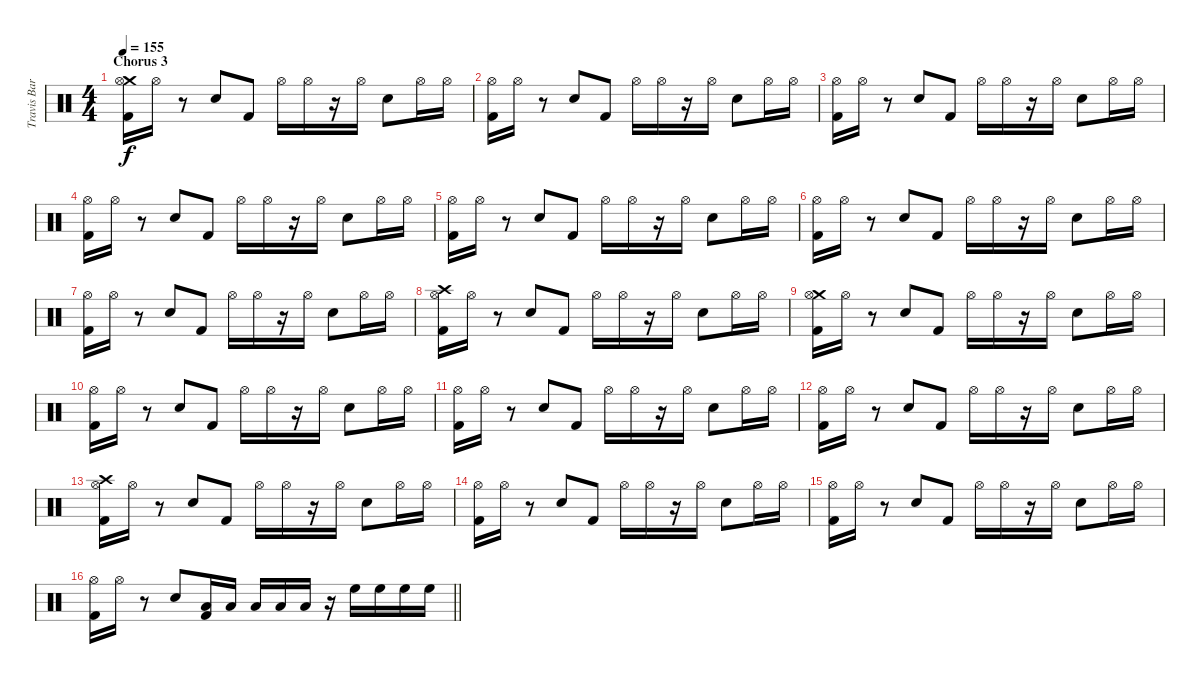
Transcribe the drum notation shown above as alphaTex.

\track ("Travis Barker Drums" "Travis Bar") {mute instrument percussion}
\staff {score}
\articulation defaults
\ts (4 4)
\section ("" "Chorus 3")
\tempo 155
\clef neutral
\ks c
("Crash medium (hit)" "Hi-Hat (open)" "Kick (hit) 2").16{dy f} "Hi-Hat (open)".16 r.8 "Electric Snare (hit)".8 "Kick (hit) 2".8 "Hi-Hat (open)".16 "Hi-Hat (open)".16 r.16 "Hi-Hat (open)".16 "Electric Snare (hit)".8 "Hi-Hat (open)".16 "Hi-Hat (open)".16 |
("Hi-Hat (open)" "Kick (hit) 2").16 "Hi-Hat (open)".16 r.8 "Electric Snare (hit)".8 "Kick (hit) 2".8 "Hi-Hat (open)".16 "Hi-Hat (open)".16 r.16 "Hi-Hat (open)".16 "Electric Snare (hit)".8 "Hi-Hat (open)".16 "Hi-Hat (open)".16 |
("Hi-Hat (open)" "Kick (hit) 2").16 "Hi-Hat (open)".16 r.8 "Electric Snare (hit)".8 "Kick (hit) 2".8 "Hi-Hat (open)".16 "Hi-Hat (open)".16 r.16 "Hi-Hat (open)".16 "Electric Snare (hit)".8 "Hi-Hat (open)".16 "Hi-Hat (open)".16 |
("Hi-Hat (open)" "Kick (hit) 2").16 "Hi-Hat (open)".16 r.8 "Electric Snare (hit)".8 "Kick (hit) 2".8 "Hi-Hat (open)".16 "Hi-Hat (open)".16 r.16 "Hi-Hat (open)".16 "Electric Snare (hit)".8 "Hi-Hat (open)".16 "Hi-Hat (open)".16 |
("Hi-Hat (open)" "Kick (hit) 2").16 "Hi-Hat (open)".16 r.8 "Electric Snare (hit)".8 "Kick (hit) 2".8 "Hi-Hat (open)".16 "Hi-Hat (open)".16 r.16 "Hi-Hat (open)".16 "Electric Snare (hit)".8 "Hi-Hat (open)".16 "Hi-Hat (open)".16 |
("Hi-Hat (open)" "Kick (hit) 2").16 "Hi-Hat (open)".16 r.8 "Electric Snare (hit)".8 "Kick (hit) 2".8 "Hi-Hat (open)".16 "Hi-Hat (open)".16 r.16 "Hi-Hat (open)".16 "Electric Snare (hit)".8 "Hi-Hat (open)".16 "Hi-Hat (open)".16 |
("Hi-Hat (open)" "Kick (hit) 2").16 "Hi-Hat (open)".16 r.8 "Electric Snare (hit)".8 "Kick (hit) 2".8 "Hi-Hat (open)".16 "Hi-Hat (open)".16 r.16 "Hi-Hat (open)".16 "Electric Snare (hit)".8 "Hi-Hat (open)".16 "Hi-Hat (open)".16 |
("Crash high (hit)" "Hi-Hat (open)" "Kick (hit) 2").16 "Hi-Hat (open)".16 r.8 "Electric Snare (hit)".8 "Kick (hit) 2".8 "Hi-Hat (open)".16 "Hi-Hat (open)".16 r.16 "Hi-Hat (open)".16 "Electric Snare (hit)".8 "Hi-Hat (open)".16 "Hi-Hat (open)".16 |
("Crash medium (hit)" "Hi-Hat (open)" "Kick (hit) 2").16 "Hi-Hat (open)".16 r.8 "Electric Snare (hit)".8 "Kick (hit) 2".8 "Hi-Hat (open)".16 "Hi-Hat (open)".16 r.16 "Hi-Hat (open)".16 "Electric Snare (hit)".8 "Hi-Hat (open)".16 "Hi-Hat (open)".16 |
("Hi-Hat (open)" "Kick (hit) 2").16 "Hi-Hat (open)".16 r.8 "Electric Snare (hit)".8 "Kick (hit) 2".8 "Hi-Hat (open)".16 "Hi-Hat (open)".16 r.16 "Hi-Hat (open)".16 "Electric Snare (hit)".8 "Hi-Hat (open)".16 "Hi-Hat (open)".16 |
("Hi-Hat (open)" "Kick (hit) 2").16 "Hi-Hat (open)".16 r.8 "Electric Snare (hit)".8 "Kick (hit) 2".8 "Hi-Hat (open)".16 "Hi-Hat (open)".16 r.16 "Hi-Hat (open)".16 "Electric Snare (hit)".8 "Hi-Hat (open)".16 "Hi-Hat (open)".16 |
("Hi-Hat (open)" "Kick (hit) 2").16 "Hi-Hat (open)".16 r.8 "Electric Snare (hit)".8 "Kick (hit) 2".8 "Hi-Hat (open)".16 "Hi-Hat (open)".16 r.16 "Hi-Hat (open)".16 "Electric Snare (hit)".8 "Hi-Hat (open)".16 "Hi-Hat (open)".16 |
("Crash high (hit)" "Hi-Hat (open)" "Kick (hit) 2").16 "Hi-Hat (open)".16 r.8 "Electric Snare (hit)".8 "Kick (hit) 2".8 "Hi-Hat (open)".16 "Hi-Hat (open)".16 r.16 "Hi-Hat (open)".16 "Electric Snare (hit)".8 "Hi-Hat (open)".16 "Hi-Hat (open)".16 |
("Hi-Hat (open)" "Kick (hit) 2").16 "Hi-Hat (open)".16 r.8 "Electric Snare (hit)".8 "Kick (hit) 2".8 "Hi-Hat (open)".16 "Hi-Hat (open)".16 r.16 "Hi-Hat (open)".16 "Electric Snare (hit)".8 "Hi-Hat (open)".16 "Hi-Hat (open)".16 |
("Hi-Hat (open)" "Kick (hit) 2").16 "Hi-Hat (open)".16 r.8 "Electric Snare (hit)".8 "Kick (hit) 2".8 "Hi-Hat (open)".16 "Hi-Hat (open)".16 r.16 "Hi-Hat (open)".16 "Electric Snare (hit)".8 "Hi-Hat (open)".16 "Hi-Hat (open)".16 |
\barLineRight lightlight
("Hi-Hat (open)" "Kick (hit) 2").16 "Hi-Hat (open)".16 r.8 "Electric Snare (hit)".8 ("Low Tom (hit)" "Kick (hit) 2").16 "Low Tom (hit)".16 "Low Tom (hit)".16 "Low Tom (hit)".16 "Low Tom (hit)".16 r.16 "High Floor Tom (hit)".16 "High Floor Tom (hit)".16 "High Floor Tom (hit)".16 "High Floor Tom (hit)".16
